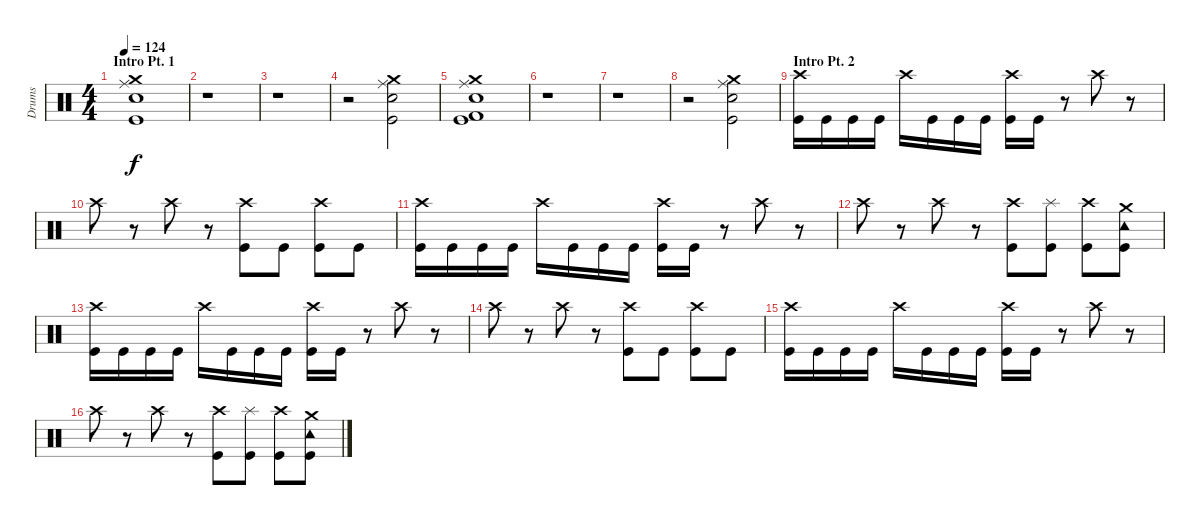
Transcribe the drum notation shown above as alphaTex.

\track ("Drums" "Drums") {instrument percussion}
\staff {score}
\articulation defaults
\ts (4 4)
\section ("" "Intro Pt. 1")
\tempo 124
\clef neutral
\ks c
("Crash medium (hit)" "Ride (middle)" "Electric Snare (hit)" "Kick (hit)").1{dy f} |
r.1 |
r.1 |
r.2 ("Crash medium (hit)" "Ride (middle)" "Electric Snare (hit)" "Kick (hit)").2 |
("Kick (hit) 2" "Crash medium (hit)" "Ride (middle)" "Electric Snare (hit)" "Kick (hit)").1 |
r.1 |
r.1 |
r.2 ("Crash medium (hit)" "Ride (middle)" "Electric Snare (hit)" "Kick (hit)").2 |
\section ("" "Intro Pt. 2")
("Crash high (hit)" "Kick (hit)").16 "Kick (hit)".16 "Kick (hit)".16 "Kick (hit)".16 "Crash high (hit)".16 "Kick (hit)".16 "Kick (hit)".16 "Kick (hit)".16 ("Crash high (hit)" "Kick (hit)").16 "Kick (hit)".16 r.8 "Crash high (hit)".8 r.8 |
"Crash high (hit)".8 r.8 "Crash high (hit)".8 r.8 ("Crash high (hit)" "Kick (hit)").8 "Kick (hit)".8 ("Crash high (hit)" "Kick (hit)").8 "Kick (hit)".8 |
("Crash high (hit)" "Kick (hit)").16 "Kick (hit)".16 "Kick (hit)".16 "Kick (hit)".16 "Crash high (hit)".16 "Kick (hit)".16 "Kick (hit)".16 "Kick (hit)".16 ("Crash high (hit)" "Kick (hit)").16 "Kick (hit)".16 r.8 "Crash high (hit)".8 r.8 |
"Crash high (hit)".8 r.8 "Crash high (hit)".8 r.8 ("Crash high (hit)" "Kick (hit)").8 ("Splash (hit)" "Kick (hit)").8 ("Crash high (hit)" "Kick (hit)").8 ("Tambourine (hit)" "Crash medium (hit)" "Kick (hit)").8 |
("Crash high (hit)" "Kick (hit)").16 "Kick (hit)".16 "Kick (hit)".16 "Kick (hit)".16 "Crash high (hit)".16 "Kick (hit)".16 "Kick (hit)".16 "Kick (hit)".16 ("Crash high (hit)" "Kick (hit)").16 "Kick (hit)".16 r.8 "Crash high (hit)".8 r.8 |
"Crash high (hit)".8 r.8 "Crash high (hit)".8 r.8 ("Crash high (hit)" "Kick (hit)").8 "Kick (hit)".8 ("Crash high (hit)" "Kick (hit)").8 "Kick (hit)".8 |
("Crash high (hit)" "Kick (hit)").16 "Kick (hit)".16 "Kick (hit)".16 "Kick (hit)".16 "Crash high (hit)".16 "Kick (hit)".16 "Kick (hit)".16 "Kick (hit)".16 ("Crash high (hit)" "Kick (hit)").16 "Kick (hit)".16 r.8 "Crash high (hit)".8 r.8 |
"Crash high (hit)".8 r.8 "Crash high (hit)".8 r.8 ("Crash high (hit)" "Kick (hit)").8 ("Splash (hit)" "Kick (hit)").8 ("Crash high (hit)" "Kick (hit)").8 ("Tambourine (hit)" "Crash medium (hit)" "Kick (hit)").8
